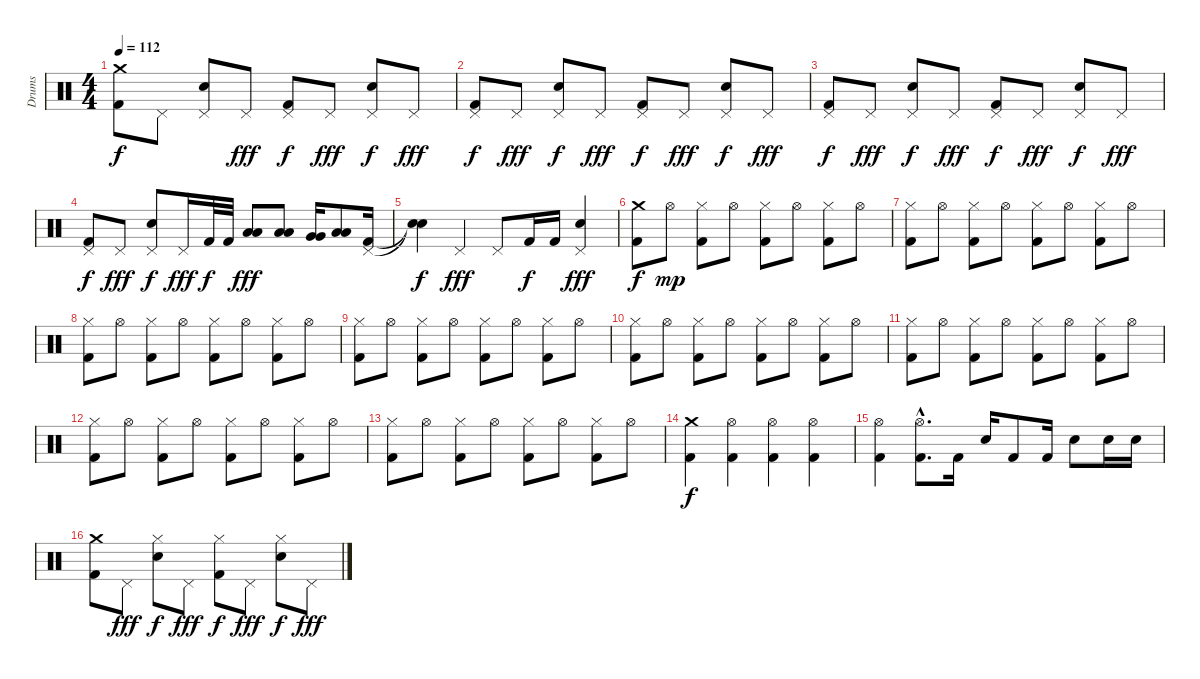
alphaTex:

\track ("Drums" "Drums") {instrument percussion}
\staff {score}
\articulation defaults
\ts (4 4)
\tempo 112
\clef neutral
\ks c
("Kick (hit) 2" "Crash medium (hit)").8{dy f} "Pedal Hi-Hat (hit)".8 ("Pedal Hi-Hat (hit)" "Snare (hit) 2").8 "Pedal Hi-Hat (hit)".8{dy fff} ("Kick (hit) 2" "Pedal Hi-Hat (hit)").8{dy f} "Pedal Hi-Hat (hit)".8{dy fff} ("Pedal Hi-Hat (hit)" "Snare (hit) 2").8{dy f} "Pedal Hi-Hat (hit)".8{dy fff} |
("Kick (hit) 2" "Pedal Hi-Hat (hit)").8{dy f} "Pedal Hi-Hat (hit)".8{dy fff} ("Pedal Hi-Hat (hit)" "Snare (hit) 2").8{dy f} "Pedal Hi-Hat (hit)".8{dy fff} ("Kick (hit) 2" "Pedal Hi-Hat (hit)").8{dy f} "Pedal Hi-Hat (hit)".8{dy fff} ("Pedal Hi-Hat (hit)" "Snare (hit) 2").8{dy f} "Pedal Hi-Hat (hit)".8{dy fff} |
("Kick (hit) 2" "Pedal Hi-Hat (hit)").8{dy f} "Pedal Hi-Hat (hit)".8{dy fff} ("Pedal Hi-Hat (hit)" "Snare (hit) 2").8{dy f} "Pedal Hi-Hat (hit)".8{dy fff} ("Kick (hit) 2" "Pedal Hi-Hat (hit)").8{dy f} "Pedal Hi-Hat (hit)".8{dy fff} ("Pedal Hi-Hat (hit)" "Snare (hit) 2").8{dy f} "Pedal Hi-Hat (hit)".8{dy fff} |
("Kick (hit) 2" "Pedal Hi-Hat (hit)").8{dy f} "Pedal Hi-Hat (hit)".8{dy fff} ("Pedal Hi-Hat (hit)" "Snare (hit) 2").8{dy f} "Pedal Hi-Hat (hit)".16{dy fff} "Kick (hit) 2".32{dy f} "Kick (hit) 2".32 ("Low Tom (hit)" "Low Tom (hit)").8{dy fff} ("Low Tom (hit)" "Low Tom (hit)").8 ("Very Low Tom (hit)" "Very Low Tom (hit)").16 ("Low Floor Tom (hit)" "Low Floor Tom (hit)").8 ("Kick (hit) 2" "Pedal Hi-Hat (hit)").16 |
("Snare (hit)"{t} "Snare (hit)"{t}).4{dy f} "Pedal Hi-Hat (hit)".4{dy fff} "Pedal Hi-Hat (hit)".8 "Kick (hit) 2".16{dy f} "Kick (hit) 2".16 ("Pedal Hi-Hat (hit)" "Snare (hit) 2").4{dy fff} |
("Kick (hit) 2" "Crash medium (hit)").8{dy f} "Hi-Hat (open)".8{dy mp} ("Kick (hit) 2" "Hi-Hat (closed)").8 "Hi-Hat (open)".8 ("Kick (hit) 2" "Hi-Hat (closed)").8 "Hi-Hat (open)".8 ("Kick (hit) 2" "Hi-Hat (closed)").8 "Hi-Hat (open)".8 |
("Kick (hit) 2" "Hi-Hat (closed)").8 "Hi-Hat (open)".8 ("Kick (hit) 2" "Hi-Hat (closed)").8 "Hi-Hat (open)".8 ("Kick (hit) 2" "Hi-Hat (closed)").8 "Hi-Hat (open)".8 ("Kick (hit) 2" "Hi-Hat (closed)").8 "Hi-Hat (open)".8 |
("Kick (hit) 2" "Hi-Hat (closed)").8 "Hi-Hat (open)".8 ("Kick (hit) 2" "Hi-Hat (closed)").8 "Hi-Hat (open)".8 ("Kick (hit) 2" "Hi-Hat (closed)").8 "Hi-Hat (open)".8 ("Kick (hit) 2" "Hi-Hat (closed)").8 "Hi-Hat (open)".8 |
("Kick (hit) 2" "Hi-Hat (closed)").8 "Hi-Hat (open)".8 ("Kick (hit) 2" "Hi-Hat (closed)").8 "Hi-Hat (open)".8 ("Kick (hit) 2" "Hi-Hat (closed)").8 "Hi-Hat (open)".8 ("Kick (hit) 2" "Hi-Hat (closed)").8 "Hi-Hat (open)".8 |
("Kick (hit) 2" "Hi-Hat (closed)").8 "Hi-Hat (open)".8 ("Kick (hit) 2" "Hi-Hat (closed)").8 "Hi-Hat (open)".8 ("Kick (hit) 2" "Hi-Hat (closed)").8 "Hi-Hat (open)".8 ("Kick (hit) 2" "Hi-Hat (closed)").8 "Hi-Hat (open)".8 |
("Kick (hit) 2" "Hi-Hat (closed)").8 "Hi-Hat (open)".8 ("Kick (hit) 2" "Hi-Hat (closed)").8 "Hi-Hat (open)".8 ("Kick (hit) 2" "Hi-Hat (closed)").8 "Hi-Hat (open)".8 ("Kick (hit) 2" "Hi-Hat (closed)").8 "Hi-Hat (open)".8 |
("Kick (hit) 2" "Hi-Hat (closed)").8 "Hi-Hat (open)".8 ("Kick (hit) 2" "Hi-Hat (closed)").8 "Hi-Hat (open)".8 ("Kick (hit) 2" "Hi-Hat (closed)").8 "Hi-Hat (open)".8 ("Kick (hit) 2" "Hi-Hat (closed)").8 "Hi-Hat (open)".8 |
("Kick (hit) 2" "Hi-Hat (closed)").8 "Hi-Hat (open)".8 ("Kick (hit) 2" "Hi-Hat (closed)").8 "Hi-Hat (open)".8 ("Kick (hit) 2" "Hi-Hat (closed)").8 "Hi-Hat (open)".8 ("Kick (hit) 2" "Hi-Hat (closed)").8 "Hi-Hat (open)".8 |
("Kick (hit) 2" "Crash medium (hit)").4{dy f} ("Kick (hit) 2" "Hi-Hat (open)").4 ("Kick (hit) 2" "Hi-Hat (open)").4 ("Kick (hit) 2" "Hi-Hat (open)").4 |
("Kick (hit) 2" "Hi-Hat (open)").4 ("Kick (hit) 2"{hac} "Hi-Hat (open)"{hac}).8{d} "Kick (hit) 2".16 "Snare (hit) 2".16 "Kick (hit) 2".8 "Kick (hit) 2".16 "Snare (hit) 2".8 "Snare (hit) 2".16 "Snare (hit) 2".16 |
("Kick (hit) 2" "Crash medium (hit)").8 "Pedal Hi-Hat (hit)".8{dy fff} ("Hi-Hat (closed)" "Snare (hit) 2").8{dy f} "Pedal Hi-Hat (hit)".8{dy fff} ("Kick (hit) 2" "Hi-Hat (closed)").8{dy f} "Pedal Hi-Hat (hit)".8{dy fff} ("Hi-Hat (closed)" "Snare (hit) 2").8{dy f} "Pedal Hi-Hat (hit)".8{dy fff}
